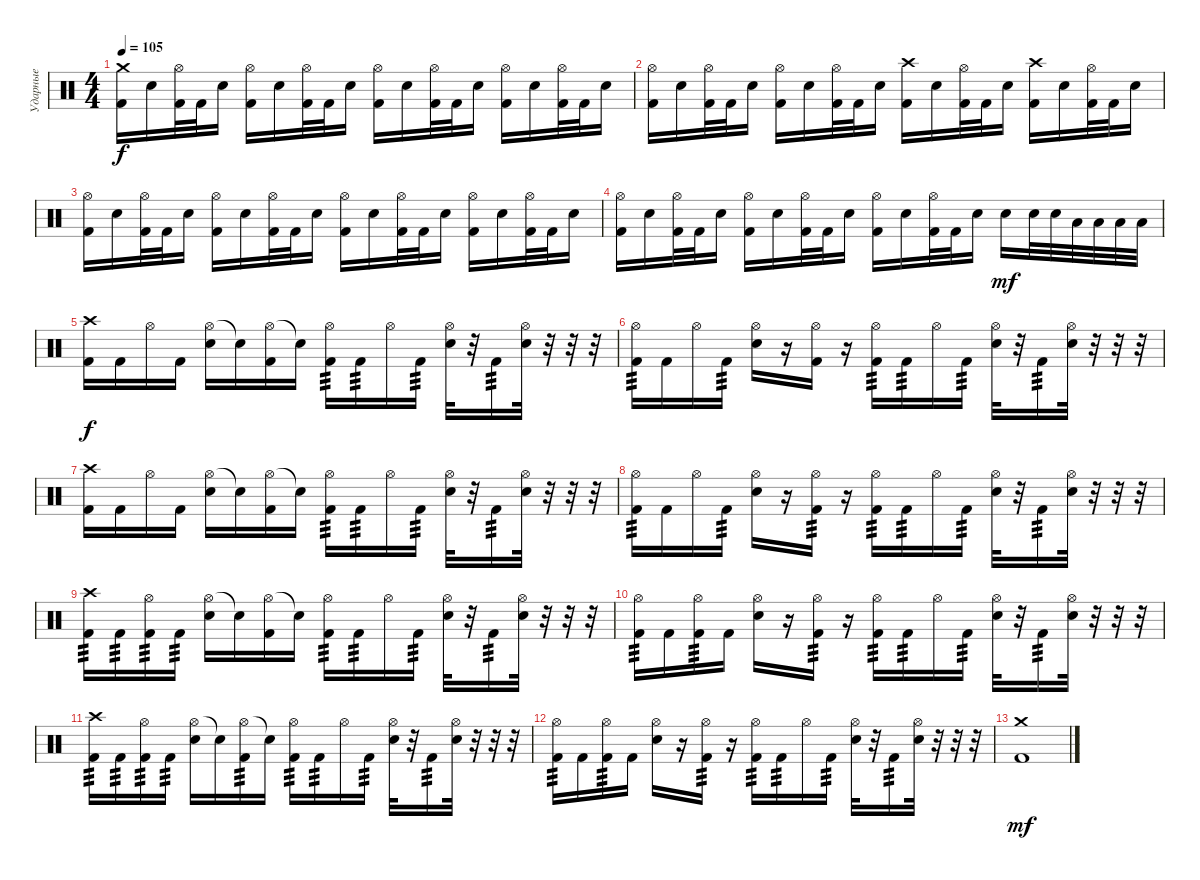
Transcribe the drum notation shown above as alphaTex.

\track ("Ударные" "Ударные") {instrument percussion}
\staff {score}
\articulation defaults
\ts (4 4)
\tempo 105
\clef neutral
\ks c
("Crash medium (hit)" "Kick (hit) 2").16{dy f} "Snare (hit) 2".16 ("Hi-Hat (open)" "Kick (hit) 2").32 "Kick (hit) 2".32 "Snare (hit) 2".16 ("Hi-Hat (open)" "Kick (hit) 2").16 "Snare (hit) 2".16 ("Hi-Hat (open)" "Kick (hit) 2").32 "Kick (hit) 2".32 "Snare (hit) 2".16 ("Hi-Hat (open)" "Kick (hit) 2").16 "Snare (hit) 2".16 ("Hi-Hat (open)" "Kick (hit) 2").32 "Kick (hit) 2".32 "Snare (hit) 2".16 ("Hi-Hat (open)" "Kick (hit) 2").16 "Snare (hit) 2".16 ("Hi-Hat (open)" "Kick (hit) 2").32 "Kick (hit) 2".32 "Snare (hit) 2".16 |
("Hi-Hat (open)" "Kick (hit) 2").16 "Snare (hit) 2".16 ("Hi-Hat (open)" "Kick (hit) 2").32 "Kick (hit) 2".32 "Snare (hit) 2".16 ("Hi-Hat (open)" "Kick (hit) 2").16 "Snare (hit) 2".16 ("Hi-Hat (open)" "Kick (hit) 2").32 "Kick (hit) 2".32 "Snare (hit) 2".16 ("Crash high (hit)" "Kick (hit) 2").16 "Snare (hit) 2".16 ("Hi-Hat (open)" "Kick (hit) 2").32 "Kick (hit) 2".32 "Snare (hit) 2".16 ("Crash high (hit)" "Kick (hit) 2").16 "Snare (hit) 2".16 ("Hi-Hat (open)" "Kick (hit) 2").32 "Kick (hit) 2".32 "Snare (hit) 2".16 |
("Hi-Hat (open)" "Kick (hit) 2").16 "Snare (hit) 2".16 ("Hi-Hat (open)" "Kick (hit) 2").32 "Kick (hit) 2".32 "Snare (hit) 2".16 ("Hi-Hat (open)" "Kick (hit) 2").16 "Snare (hit) 2".16 ("Hi-Hat (open)" "Kick (hit) 2").32 "Kick (hit) 2".32 "Snare (hit) 2".16 ("Hi-Hat (open)" "Kick (hit) 2").16 "Snare (hit) 2".16 ("Hi-Hat (open)" "Kick (hit) 2").32 "Kick (hit) 2".32 "Snare (hit) 2".16 ("Hi-Hat (open)" "Kick (hit) 2").16 "Snare (hit) 2".16 ("Hi-Hat (open)" "Kick (hit) 2").32 "Kick (hit) 2".32 "Snare (hit) 2".16 |
("Hi-Hat (open)" "Kick (hit) 2").16 "Snare (hit) 2".16 ("Hi-Hat (open)" "Kick (hit) 2").32 "Kick (hit) 2".32 "Snare (hit) 2".16 ("Hi-Hat (open)" "Kick (hit) 2").16 "Snare (hit) 2".16 ("Hi-Hat (open)" "Kick (hit) 2").32 "Kick (hit) 2".32 "Snare (hit) 2".16 ("Hi-Hat (open)" "Kick (hit) 2").16 "Snare (hit) 2".16 ("Hi-Hat (open)" "Kick (hit) 2").32 "Kick (hit) 2".32 "Snare (hit) 2".16 "Snare (hit) 2".16{dy mf} "Snare (hit) 2".32 "Snare (hit) 2".32 "Low Tom (hit)".32 "Low Tom (hit)".32 "Low Floor Tom (hit)".32 "Low Floor Tom (hit)".32 |
("Crash high (hit)" "Kick (hit) 2").16{dy f} "Kick (hit) 2".16 "Hi-Hat (open)".16 "Kick (hit) 2".16 ("Hi-Hat (open)" "Snare (hit) 2").16 "Snare (hit)"{t}.16 ("Hi-Hat (open)" "Kick (hit) 2").16 "Snare (hit)"{t}.16 ("Hi-Hat (open)" "Kick (hit) 2").16{tp 3} "Kick (hit) 2".16{tp 3} "Hi-Hat (open)".16 "Kick (hit) 2".16{tp 3} ("Hi-Hat (open)" "Snare (hit) 2").32 r.32 "Kick (hit) 2".16{tp 3} ("Hi-Hat (open)" "Snare (hit) 2").32 r.32 r.32 r.32 |
("Hi-Hat (open)" "Kick (hit) 2").16{tp 3} "Kick (hit) 2".16 "Hi-Hat (open)".16 "Kick (hit) 2".16{tp 3} ("Hi-Hat (open)" "Snare (hit) 2").16 r.16 ("Hi-Hat (open)" "Kick (hit) 2").16 r.16 ("Hi-Hat (open)" "Kick (hit) 2").16{tp 3} "Kick (hit) 2".16{tp 3} "Hi-Hat (open)".16 "Kick (hit) 2".16{tp 3} ("Hi-Hat (open)" "Snare (hit) 2").32 r.32 "Kick (hit) 2".16{tp 3} ("Hi-Hat (open)" "Snare (hit) 2").32 r.32 r.32 r.32 |
("Crash high (hit)" "Kick (hit) 2").16 "Kick (hit) 2".16 "Hi-Hat (open)".16 "Kick (hit) 2".16 ("Hi-Hat (open)" "Snare (hit) 2").16 "Snare (hit)"{t}.16 ("Hi-Hat (open)" "Kick (hit) 2").16 "Snare (hit)"{t}.16 ("Hi-Hat (open)" "Kick (hit) 2").16{tp 3} "Kick (hit) 2".16{tp 3} "Hi-Hat (open)".16 "Kick (hit) 2".16{tp 3} ("Hi-Hat (open)" "Snare (hit) 2").32 r.32 "Kick (hit) 2".16{tp 3} ("Hi-Hat (open)" "Snare (hit) 2").32 r.32 r.32 r.32 |
("Hi-Hat (open)" "Kick (hit) 2").16{tp 3} "Kick (hit) 2".16 "Hi-Hat (open)".16 "Kick (hit) 2".16{tp 3} ("Hi-Hat (open)" "Snare (hit) 2").16 r.16 ("Hi-Hat (open)" "Kick (hit) 2").16{tp 3} r.16 ("Hi-Hat (open)" "Kick (hit) 2").16{tp 3} "Kick (hit) 2".16{tp 3} "Hi-Hat (open)".16 "Kick (hit) 2".16{tp 3} ("Hi-Hat (open)" "Snare (hit) 2").32 r.32 "Kick (hit) 2".16{tp 3} ("Hi-Hat (open)" "Snare (hit) 2").32 r.32 r.32 r.32 |
("Crash high (hit)" "Kick (hit) 2").16{tp 3} "Kick (hit) 2".16{tp 3} ("Hi-Hat (open)" "Kick (hit) 2").16{tp 3} "Kick (hit) 2".16{tp 3} ("Hi-Hat (open)" "Snare (hit) 2").16 "Snare (hit)"{t}.16 ("Hi-Hat (open)" "Kick (hit) 2").16 "Snare (hit)"{t}.16 ("Hi-Hat (open)" "Kick (hit) 2").16{tp 3} "Kick (hit) 2".16{tp 3} "Hi-Hat (open)".16 "Kick (hit) 2".16{tp 3} ("Hi-Hat (open)" "Snare (hit) 2").32 r.32 "Kick (hit) 2".16{tp 3} ("Hi-Hat (open)" "Snare (hit) 2").32 r.32 r.32 r.32 |
("Hi-Hat (open)" "Kick (hit) 2").16{tp 3} "Kick (hit) 2".16 ("Hi-Hat (open)" "Kick (hit) 2").16{tp 3} "Kick (hit) 2".16 ("Hi-Hat (open)" "Snare (hit) 2").16 r.16 ("Hi-Hat (open)" "Kick (hit) 2").16{tp 3} r.16 ("Hi-Hat (open)" "Kick (hit) 2").16{tp 3} "Kick (hit) 2".16{tp 3} "Hi-Hat (open)".16 "Kick (hit) 2".16{tp 3} ("Hi-Hat (open)" "Snare (hit) 2").32 r.32 "Kick (hit) 2".16{tp 3} ("Hi-Hat (open)" "Snare (hit) 2").32 r.32 r.32 r.32 |
("Crash high (hit)" "Kick (hit) 2").16{tp 3} "Kick (hit) 2".16{tp 3} ("Hi-Hat (open)" "Kick (hit) 2").16{tp 3} "Kick (hit) 2".16{tp 3} ("Hi-Hat (open)" "Snare (hit) 2").16 "Snare (hit)"{t}.16 ("Hi-Hat (open)" "Kick (hit) 2").16{tp 3} "Snare (hit)"{t}.16 ("Hi-Hat (open)" "Kick (hit) 2").16{tp 3} "Kick (hit) 2".16{tp 3} "Hi-Hat (open)".16 "Kick (hit) 2".16{tp 3} ("Hi-Hat (open)" "Snare (hit) 2").32 r.32 "Kick (hit) 2".16{tp 3} ("Hi-Hat (open)" "Snare (hit) 2").32 r.32 r.32 r.32 |
("Hi-Hat (open)" "Kick (hit) 2").16{tp 3} "Kick (hit) 2".16 ("Hi-Hat (open)" "Kick (hit) 2").16{tp 3} "Kick (hit) 2".16 ("Hi-Hat (open)" "Snare (hit) 2").16 r.16 ("Hi-Hat (open)" "Kick (hit) 2").16{tp 3} r.16 ("Hi-Hat (open)" "Kick (hit) 2").16{tp 3} "Kick (hit) 2".16{tp 3} "Hi-Hat (open)".16 "Kick (hit) 2".16{tp 3} ("Hi-Hat (open)" "Snare (hit) 2").32 r.32 "Kick (hit) 2".16{tp 3} ("Hi-Hat (open)" "Snare (hit) 2").32 r.32 r.32 r.32 |
("Crash medium (hit)" "Kick (hit) 2").1{dy mf}
